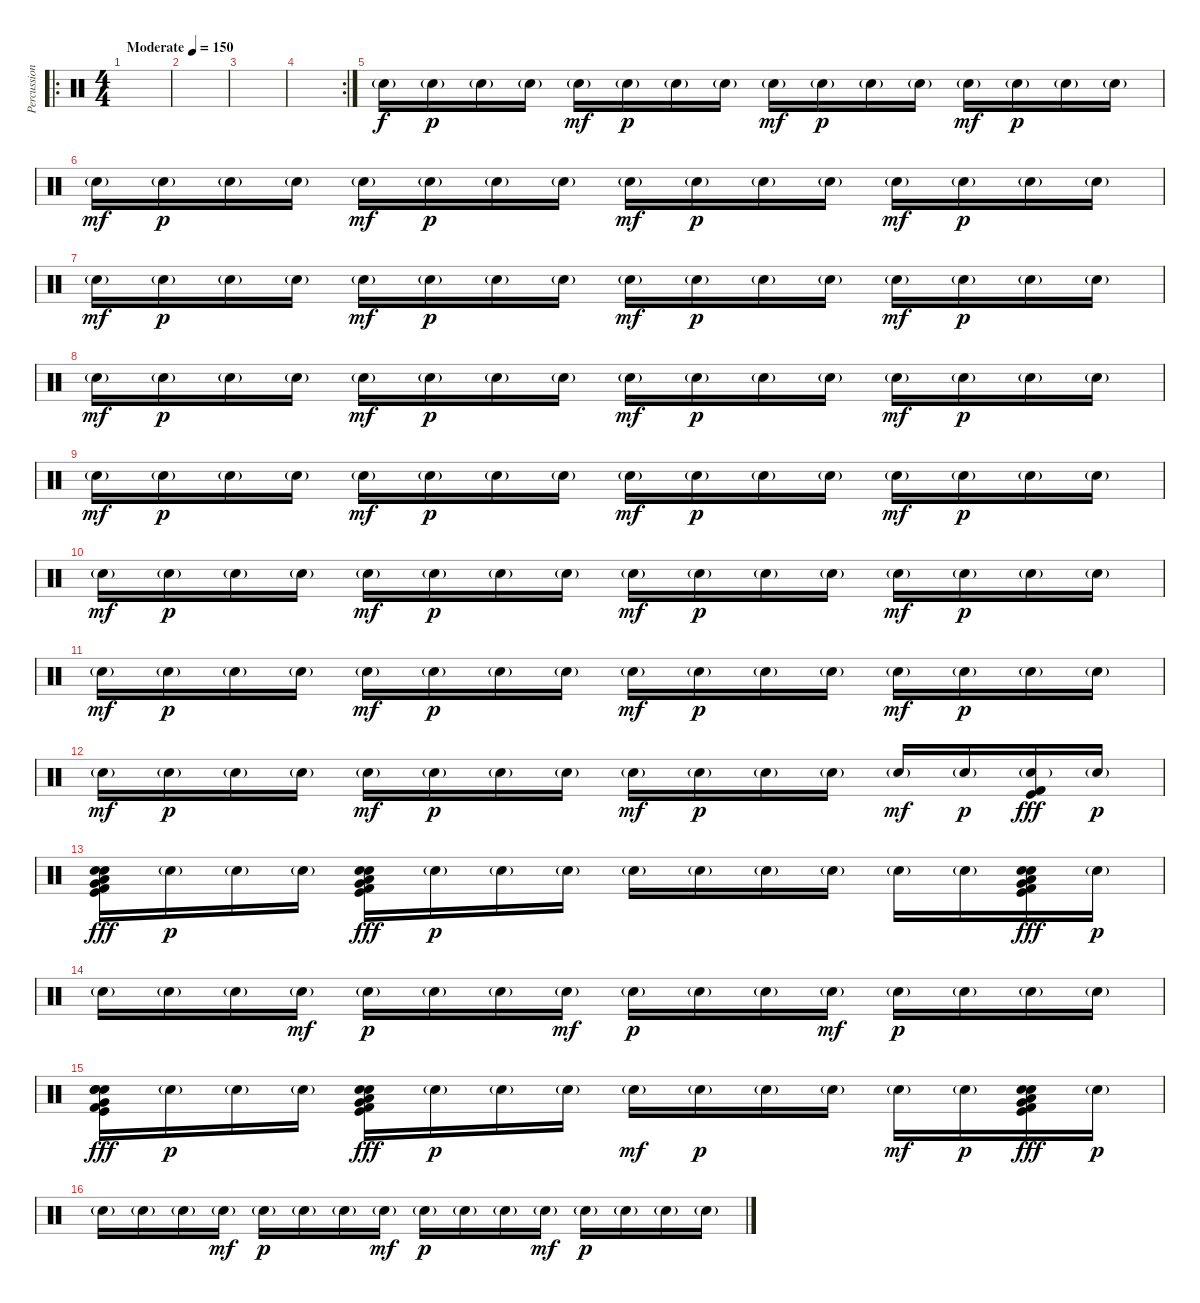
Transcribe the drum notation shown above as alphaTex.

\track ("Percussion" "Percussion") {instrument percussion}
\staff {score}
\articulation defaults
\ro
\ts (4 4)
\tempo (150 "Moderate")
\clef neutral
\ks c
|
|
|
\rc 2
|
"Snare (hit) 2"{g}.16 "Snare (hit) 2"{g}.16{dy p} "Snare (hit) 2"{g}.16 "Snare (hit) 2"{g}.16 "Snare (hit) 2"{g}.16{dy mf} "Snare (hit) 2"{g}.16{dy p} "Snare (hit) 2"{g}.16 "Snare (hit) 2"{g}.16 "Snare (hit) 2"{g}.16{dy mf} "Snare (hit) 2"{g}.16{dy p} "Snare (hit) 2"{g}.16 "Snare (hit) 2"{g}.16 "Snare (hit) 2"{g}.16{dy mf} "Snare (hit) 2"{g}.16{dy p} "Snare (hit) 2"{g}.16 "Snare (hit) 2"{g}.16 |
"Snare (hit) 2"{g}.16{dy mf} "Snare (hit) 2"{g}.16{dy p} "Snare (hit) 2"{g}.16 "Snare (hit) 2"{g}.16 "Snare (hit) 2"{g}.16{dy mf} "Snare (hit) 2"{g}.16{dy p} "Snare (hit) 2"{g}.16 "Snare (hit) 2"{g}.16 "Snare (hit) 2"{g}.16{dy mf} "Snare (hit) 2"{g}.16{dy p} "Snare (hit) 2"{g}.16 "Snare (hit) 2"{g}.16 "Snare (hit) 2"{g}.16{dy mf} "Snare (hit) 2"{g}.16{dy p} "Snare (hit) 2"{g}.16 "Snare (hit) 2"{g}.16 |
"Snare (hit) 2"{g}.16{dy mf} "Snare (hit) 2"{g}.16{dy p} "Snare (hit) 2"{g}.16 "Snare (hit) 2"{g}.16 "Snare (hit) 2"{g}.16{dy mf} "Snare (hit) 2"{g}.16{dy p} "Snare (hit) 2"{g}.16 "Snare (hit) 2"{g}.16 "Snare (hit) 2"{g}.16{dy mf} "Snare (hit) 2"{g}.16{dy p} "Snare (hit) 2"{g}.16 "Snare (hit) 2"{g}.16 "Snare (hit) 2"{g}.16{dy mf} "Snare (hit) 2"{g}.16{dy p} "Snare (hit) 2"{g}.16 "Snare (hit) 2"{g}.16 |
"Snare (hit) 2"{g}.16{dy mf} "Snare (hit) 2"{g}.16{dy p} "Snare (hit) 2"{g}.16 "Snare (hit) 2"{g}.16 "Snare (hit) 2"{g}.16{dy mf} "Snare (hit) 2"{g}.16{dy p} "Snare (hit) 2"{g}.16 "Snare (hit) 2"{g}.16 "Snare (hit) 2"{g}.16{dy mf} "Snare (hit) 2"{g}.16{dy p} "Snare (hit) 2"{g}.16 "Snare (hit) 2"{g}.16 "Snare (hit) 2"{g}.16{dy mf} "Snare (hit) 2"{g}.16{dy p} "Snare (hit) 2"{g}.16 "Snare (hit) 2"{g}.16 |
"Snare (hit) 2"{g}.16{dy mf} "Snare (hit) 2"{g}.16{dy p} "Snare (hit) 2"{g}.16 "Snare (hit) 2"{g}.16 "Snare (hit) 2"{g}.16{dy mf} "Snare (hit) 2"{g}.16{dy p} "Snare (hit) 2"{g}.16 "Snare (hit) 2"{g}.16 "Snare (hit) 2"{g}.16{dy mf} "Snare (hit) 2"{g}.16{dy p} "Snare (hit) 2"{g}.16 "Snare (hit) 2"{g}.16 "Snare (hit) 2"{g}.16{dy mf} "Snare (hit) 2"{g}.16{dy p} "Snare (hit) 2"{g}.16 "Snare (hit) 2"{g}.16 |
"Snare (hit) 2"{g}.16{dy mf} "Snare (hit) 2"{g}.16{dy p} "Snare (hit) 2"{g}.16 "Snare (hit) 2"{g}.16 "Snare (hit) 2"{g}.16{dy mf} "Snare (hit) 2"{g}.16{dy p} "Snare (hit) 2"{g}.16 "Snare (hit) 2"{g}.16 "Snare (hit) 2"{g}.16{dy mf} "Snare (hit) 2"{g}.16{dy p} "Snare (hit) 2"{g}.16 "Snare (hit) 2"{g}.16 "Snare (hit) 2"{g}.16{dy mf} "Snare (hit) 2"{g}.16{dy p} "Snare (hit) 2"{g}.16 "Snare (hit) 2"{g}.16 |
"Snare (hit) 2"{g}.16{dy mf} "Snare (hit) 2"{g}.16{dy p} "Snare (hit) 2"{g}.16 "Snare (hit) 2"{g}.16 "Snare (hit) 2"{g}.16{dy mf} "Snare (hit) 2"{g}.16{dy p} "Snare (hit) 2"{g}.16 "Snare (hit) 2"{g}.16 "Snare (hit) 2"{g}.16{dy mf} "Snare (hit) 2"{g}.16{dy p} "Snare (hit) 2"{g}.16 "Snare (hit) 2"{g}.16 "Snare (hit) 2"{g}.16{dy mf} "Snare (hit) 2"{g}.16{dy p} "Snare (hit) 2"{g}.16 "Snare (hit) 2"{g}.16 |
"Snare (hit) 2"{g}.16{dy mf} "Snare (hit) 2"{g}.16{dy p} "Snare (hit) 2"{g}.16 "Snare (hit) 2"{g}.16 "Snare (hit) 2"{g}.16{dy mf} "Snare (hit) 2"{g}.16{dy p} "Snare (hit) 2"{g}.16 "Snare (hit) 2"{g}.16 "Snare (hit) 2"{g}.16{dy mf} "Snare (hit) 2"{g}.16{dy p} "Snare (hit) 2"{g}.16 "Snare (hit) 2"{g}.16 "Snare (hit) 2"{g}.16{dy mf} "Snare (hit) 2"{g}.16{dy p} ("Snare (hit) 2"{g} "Kick (hit) 2" "Kick (hit)").16{dy fff} "Snare (hit) 2"{g}.16{dy p} |
("Very Low Tom (hit)" "Snare (hit) 2" "Electric Snare (hit)" "Low Floor Tom (hit)" "Kick (hit) 2" "Kick (hit)").16{dy fff} "Snare (hit) 2"{g}.16{dy p} "Snare (hit) 2"{g}.16 "Snare (hit) 2"{g}.16 ("Very Low Tom (hit)" "Snare (hit) 2" "Electric Snare (hit)" "Low Floor Tom (hit)" "Kick (hit) 2" "Kick (hit)").16{dy fff} "Snare (hit) 2"{g}.16{dy p} "Snare (hit) 2"{g}.16 "Snare (hit) 2"{g}.16 "Snare (hit) 2"{g}.16 "Snare (hit) 2"{g}.16 "Snare (hit) 2"{g}.16 "Snare (hit) 2"{g}.16 "Snare (hit) 2"{g}.16 "Snare (hit) 2"{g}.16 ("Very Low Tom (hit)" "Snare (hit) 2" "Electric Snare (hit)" "Low Floor Tom (hit)" "Kick (hit) 2" "Kick (hit)").16{dy fff} "Snare (hit) 2"{g}.16{dy p} |
"Snare (hit) 2"{g}.16 "Snare (hit) 2"{g}.16 "Snare (hit) 2"{g}.16 "Snare (hit) 2"{g}.16{dy mf} "Snare (hit) 2"{g}.16{dy p} "Snare (hit) 2"{g}.16 "Snare (hit) 2"{g}.16 "Snare (hit) 2"{g}.16{dy mf} "Snare (hit) 2"{g}.16{dy p} "Snare (hit) 2"{g}.16 "Snare (hit) 2"{g}.16 "Snare (hit) 2"{g}.16{dy mf} "Snare (hit) 2"{g}.16{dy p} "Snare (hit) 2"{g}.16 "Snare (hit) 2"{g}.16 "Snare (hit) 2"{g}.16 |
("Very Low Tom (hit)" "Snare (hit) 2" "Electric Snare (hit)" "Electric Snare (hit)" "Kick (hit) 2" "Kick (hit)").16{dy fff} "Snare (hit) 2"{g}.16{dy p} "Snare (hit) 2"{g}.16 "Snare (hit) 2"{g}.16 ("Very Low Tom (hit)" "Snare (hit) 2" "Electric Snare (hit)" "Low Floor Tom (hit)" "Kick (hit) 2" "Kick (hit)").16{dy fff} "Snare (hit) 2"{g}.16{dy p} "Snare (hit) 2"{g}.16 "Snare (hit) 2"{g}.16 "Snare (hit) 2"{g}.16{dy mf} "Snare (hit) 2"{g}.16{dy p} "Snare (hit) 2"{g}.16 "Snare (hit) 2"{g}.16 "Snare (hit) 2"{g}.16{dy mf} "Snare (hit) 2"{g}.16{dy p} ("Very Low Tom (hit)" "Snare (hit) 2" "Electric Snare (hit)" "Low Floor Tom (hit)" "Kick (hit) 2" "Kick (hit)").16{dy fff} "Snare (hit) 2"{g}.16{dy p} |
"Snare (hit) 2"{g}.16 "Snare (hit) 2"{g}.16 "Snare (hit) 2"{g}.16 "Snare (hit) 2"{g}.16{dy mf} "Snare (hit) 2"{g}.16{dy p} "Snare (hit) 2"{g}.16 "Snare (hit) 2"{g}.16 "Snare (hit) 2"{g}.16{dy mf} "Snare (hit) 2"{g}.16{dy p} "Snare (hit) 2"{g}.16 "Snare (hit) 2"{g}.16 "Snare (hit) 2"{g}.16{dy mf} "Snare (hit) 2"{g}.16{dy p} "Snare (hit) 2"{g}.16 "Snare (hit) 2"{g}.16 "Snare (hit) 2"{g}.16
